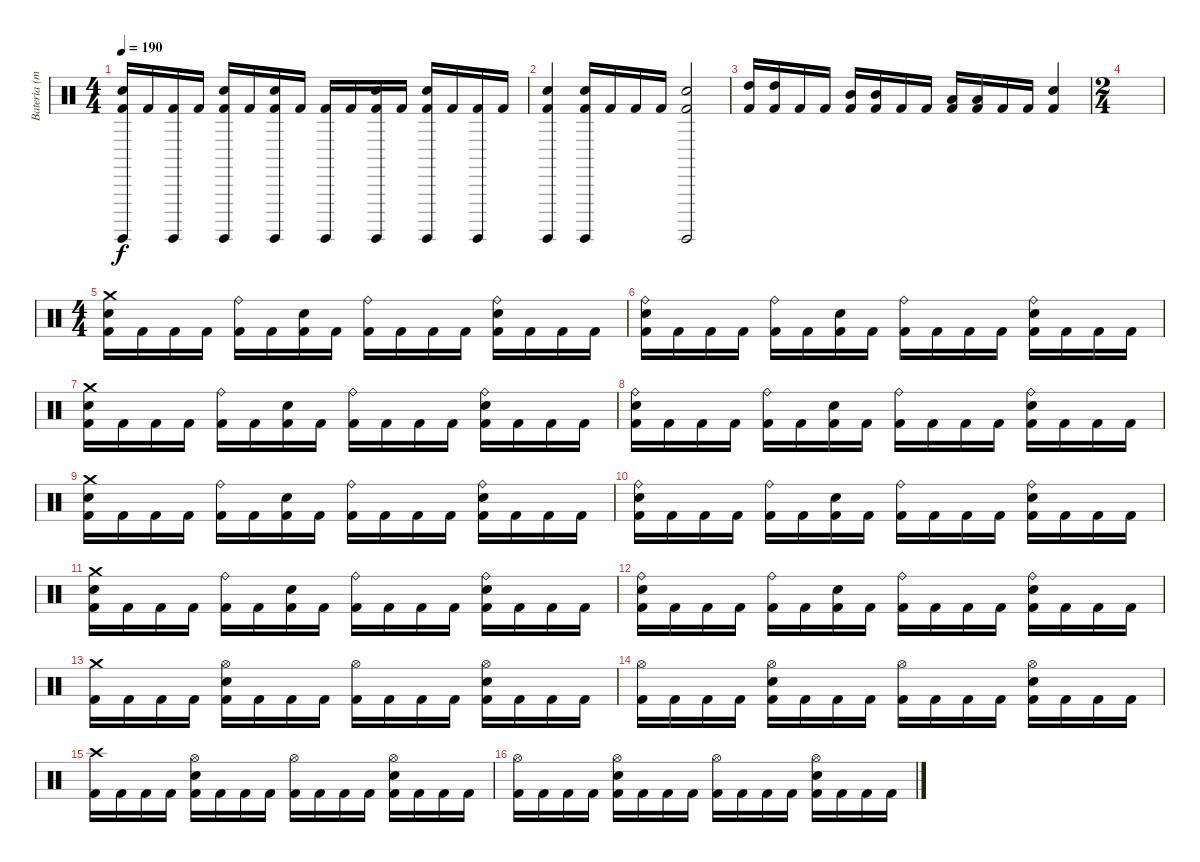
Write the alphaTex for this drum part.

\track ("Bateria (mestre Aquiles Priester)" "Bateria (m") {instrument percussion}
\staff {score}
\articulation defaults
\ts (4 4)
\tempo 190
\clef neutral
\ks c
("Kick (hit) 2" "Electric Snare (hit)" "Surdo (hit)").16{dy f} "Kick (hit) 2".16 ("Kick (hit) 2" "Surdo (hit)").16 "Kick (hit) 2".16 ("Kick (hit) 2" "Electric Snare (hit)" "Surdo (hit)").16 "Kick (hit) 2".16 ("Kick (hit) 2" "Electric Snare (hit)" "Surdo (hit)").16 "Kick (hit) 2".16 ("Kick (hit) 2" "Surdo (hit)").16 "Kick (hit) 2".16 ("Kick (hit) 2" "Electric Snare (hit)" "Surdo (hit)").16 "Kick (hit) 2".16 ("Kick (hit) 2" "Electric Snare (hit)" "Surdo (hit)").16 "Kick (hit) 2".16 ("Kick (hit) 2" "Surdo (hit)").16 "Kick (hit) 2".16 |
("Kick (hit) 2" "Electric Snare (hit)" "Surdo (hit)").4 ("Kick (hit) 2" "Electric Snare (hit)" "Surdo (hit)").16 "Kick (hit) 2".16 "Kick (hit) 2".16 "Kick (hit) 2".16 ("Kick (hit) 2" "Electric Snare (hit)" "Surdo (hit)").2 |
("Kick (hit) 2" "High Tom (hit)").16 ("Kick (hit) 2" "High Tom (hit)").16 "Kick (hit) 2".16 "Kick (hit) 2".16 ("Kick (hit) 2" "Mid Tom (hit)").16 ("Kick (hit) 2" "Mid Tom (hit)").16 "Kick (hit) 2".16 "Kick (hit) 2".16 ("Kick (hit) 2" "Low Tom (hit)").16 ("Kick (hit) 2" "Low Tom (hit)").16 "Kick (hit) 2".16 "Kick (hit) 2".16 ("Kick (hit) 2" "Electric Snare (hit)").4 |
\ts (2 4)
|
\ts (4 4)
("Kick (hit) 2" "Electric Snare (hit)" "Crash medium (hit)").16 "Kick (hit) 2".16 "Kick (hit) 2".16 "Kick (hit) 2".16 ("Kick (hit) 2" "Ride (bell)").16 "Kick (hit) 2".16 ("Kick (hit) 2" "Electric Snare (hit)").16 "Kick (hit) 2".16 ("Kick (hit) 2" "Ride (bell)").16 "Kick (hit) 2".16 "Kick (hit) 2".16 "Kick (hit) 2".16 ("Kick (hit) 2" "Electric Snare (hit)" "Ride (bell)").16 "Kick (hit) 2".16 "Kick (hit) 2".16 "Kick (hit) 2".16 |
("Kick (hit) 2" "Electric Snare (hit)" "Ride (bell)").16 "Kick (hit) 2".16 "Kick (hit) 2".16 "Kick (hit) 2".16 ("Kick (hit) 2" "Ride (bell)").16 "Kick (hit) 2".16 ("Kick (hit) 2" "Electric Snare (hit)").16 "Kick (hit) 2".16 ("Kick (hit) 2" "Ride (bell)").16 "Kick (hit) 2".16 "Kick (hit) 2".16 "Kick (hit) 2".16 ("Kick (hit) 2" "Electric Snare (hit)" "Ride (bell)").16 "Kick (hit) 2".16 "Kick (hit) 2".16 "Kick (hit) 2".16 |
("Kick (hit) 2" "Electric Snare (hit)" "Crash medium (hit)").16 "Kick (hit) 2".16 "Kick (hit) 2".16 "Kick (hit) 2".16 ("Kick (hit) 2" "Ride (bell)").16 "Kick (hit) 2".16 ("Kick (hit) 2" "Electric Snare (hit)").16 "Kick (hit) 2".16 ("Kick (hit) 2" "Ride (bell)").16 "Kick (hit) 2".16 "Kick (hit) 2".16 "Kick (hit) 2".16 ("Kick (hit) 2" "Electric Snare (hit)" "Ride (bell)").16 "Kick (hit) 2".16 "Kick (hit) 2".16 "Kick (hit) 2".16 |
("Kick (hit) 2" "Electric Snare (hit)" "Ride (bell)").16 "Kick (hit) 2".16 "Kick (hit) 2".16 "Kick (hit) 2".16 ("Kick (hit) 2" "Ride (bell)").16 "Kick (hit) 2".16 ("Kick (hit) 2" "Electric Snare (hit)").16 "Kick (hit) 2".16 ("Kick (hit) 2" "Ride (bell)").16 "Kick (hit) 2".16 "Kick (hit) 2".16 "Kick (hit) 2".16 ("Kick (hit) 2" "Electric Snare (hit)" "Ride (bell)").16 "Kick (hit) 2".16 "Kick (hit) 2".16 "Kick (hit) 2".16 |
("Kick (hit) 2" "Electric Snare (hit)" "Crash medium (hit)").16 "Kick (hit) 2".16 "Kick (hit) 2".16 "Kick (hit) 2".16 ("Kick (hit) 2" "Ride (bell)").16 "Kick (hit) 2".16 ("Kick (hit) 2" "Electric Snare (hit)").16 "Kick (hit) 2".16 ("Kick (hit) 2" "Ride (bell)").16 "Kick (hit) 2".16 "Kick (hit) 2".16 "Kick (hit) 2".16 ("Kick (hit) 2" "Electric Snare (hit)" "Ride (bell)").16 "Kick (hit) 2".16 "Kick (hit) 2".16 "Kick (hit) 2".16 |
("Kick (hit) 2" "Electric Snare (hit)" "Ride (bell)").16 "Kick (hit) 2".16 "Kick (hit) 2".16 "Kick (hit) 2".16 ("Kick (hit) 2" "Ride (bell)").16 "Kick (hit) 2".16 ("Kick (hit) 2" "Electric Snare (hit)").16 "Kick (hit) 2".16 ("Kick (hit) 2" "Ride (bell)").16 "Kick (hit) 2".16 "Kick (hit) 2".16 "Kick (hit) 2".16 ("Kick (hit) 2" "Electric Snare (hit)" "Ride (bell)").16 "Kick (hit) 2".16 "Kick (hit) 2".16 "Kick (hit) 2".16 |
("Kick (hit) 2" "Electric Snare (hit)" "Crash medium (hit)").16 "Kick (hit) 2".16 "Kick (hit) 2".16 "Kick (hit) 2".16 ("Kick (hit) 2" "Ride (bell)").16 "Kick (hit) 2".16 ("Kick (hit) 2" "Electric Snare (hit)").16 "Kick (hit) 2".16 ("Kick (hit) 2" "Ride (bell)").16 "Kick (hit) 2".16 "Kick (hit) 2".16 "Kick (hit) 2".16 ("Kick (hit) 2" "Electric Snare (hit)" "Ride (bell)").16 "Kick (hit) 2".16 "Kick (hit) 2".16 "Kick (hit) 2".16 |
("Kick (hit) 2" "Electric Snare (hit)" "Ride (bell)").16 "Kick (hit) 2".16 "Kick (hit) 2".16 "Kick (hit) 2".16 ("Kick (hit) 2" "Ride (bell)").16 "Kick (hit) 2".16 ("Kick (hit) 2" "Electric Snare (hit)").16 "Kick (hit) 2".16 ("Kick (hit) 2" "Ride (bell)").16 "Kick (hit) 2".16 "Kick (hit) 2".16 "Kick (hit) 2".16 ("Kick (hit) 2" "Electric Snare (hit)" "Ride (bell)").16 "Kick (hit) 2".16 "Kick (hit) 2".16 "Kick (hit) 2".16 |
("Kick (hit) 2" "Crash medium (hit)").16 "Kick (hit) 2".16 "Kick (hit) 2".16 "Kick (hit) 2".16 ("Kick (hit) 2" "Electric Snare (hit)" "Hi-Hat (open)").16 "Kick (hit) 2".16 "Kick (hit) 2".16 "Kick (hit) 2".16 ("Kick (hit) 2" "Hi-Hat (open)").16 "Kick (hit) 2".16 "Kick (hit) 2".16 "Kick (hit) 2".16 ("Kick (hit) 2" "Electric Snare (hit)" "Hi-Hat (open)").16 "Kick (hit) 2".16 "Kick (hit) 2".16 "Kick (hit) 2".16 |
("Kick (hit) 2" "Hi-Hat (open)").16 "Kick (hit) 2".16 "Kick (hit) 2".16 "Kick (hit) 2".16 ("Kick (hit) 2" "Electric Snare (hit)" "Hi-Hat (open)").16 "Kick (hit) 2".16 "Kick (hit) 2".16 "Kick (hit) 2".16 ("Kick (hit) 2" "Hi-Hat (open)").16 "Kick (hit) 2".16 "Kick (hit) 2".16 "Kick (hit) 2".16 ("Kick (hit) 2" "Electric Snare (hit)" "Hi-Hat (open)").16 "Kick (hit) 2".16 "Kick (hit) 2".16 "Kick (hit) 2".16 |
("Kick (hit) 2" "Crash high (hit)").16 "Kick (hit) 2".16 "Kick (hit) 2".16 "Kick (hit) 2".16 ("Kick (hit) 2" "Electric Snare (hit)" "Hi-Hat (open)").16 "Kick (hit) 2".16 "Kick (hit) 2".16 "Kick (hit) 2".16 ("Kick (hit) 2" "Hi-Hat (open)").16 "Kick (hit) 2".16 "Kick (hit) 2".16 "Kick (hit) 2".16 ("Kick (hit) 2" "Electric Snare (hit)" "Hi-Hat (open)").16 "Kick (hit) 2".16 "Kick (hit) 2".16 "Kick (hit) 2".16 |
("Kick (hit) 2" "Hi-Hat (open)").16 "Kick (hit) 2".16 "Kick (hit) 2".16 "Kick (hit) 2".16 ("Kick (hit) 2" "Electric Snare (hit)" "Hi-Hat (open)").16 "Kick (hit) 2".16 "Kick (hit) 2".16 "Kick (hit) 2".16 ("Kick (hit) 2" "Hi-Hat (open)").16 "Kick (hit) 2".16 "Kick (hit) 2".16 "Kick (hit) 2".16 ("Kick (hit) 2" "Electric Snare (hit)" "Hi-Hat (open)").16 "Kick (hit) 2".16 "Kick (hit) 2".16 "Kick (hit) 2".16
